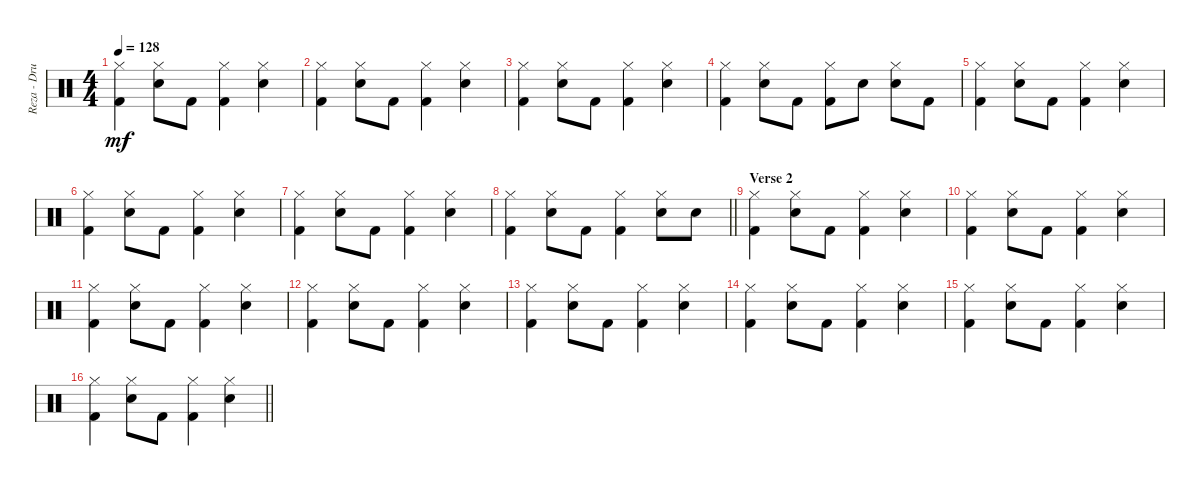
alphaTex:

\track ("Reza - Drum" "Reza - Dru") {instrument percussion}
\staff {score}
\articulation defaults
\ts (4 4)
\tempo 128
\clef neutral
\ks c
("Hi-Hat (closed)" "Kick (hit) 2").4{dy mf} ("Hi-Hat (closed)" "Electric Snare (hit)").8 "Kick (hit) 2".8 ("Hi-Hat (closed)" "Kick (hit) 2").4 ("Hi-Hat (closed)" "Electric Snare (hit)").4 |
("Hi-Hat (closed)" "Kick (hit) 2").4 ("Hi-Hat (closed)" "Electric Snare (hit)").8 "Kick (hit) 2".8 ("Hi-Hat (closed)" "Kick (hit) 2").4 ("Hi-Hat (closed)" "Electric Snare (hit)").4 |
("Hi-Hat (closed)" "Kick (hit) 2").4 ("Hi-Hat (closed)" "Electric Snare (hit)").8 "Kick (hit) 2".8 ("Hi-Hat (closed)" "Kick (hit) 2").4 ("Hi-Hat (closed)" "Electric Snare (hit)").4 |
("Hi-Hat (closed)" "Kick (hit) 2").4 ("Hi-Hat (closed)" "Electric Snare (hit)").8 "Kick (hit) 2".8 ("Hi-Hat (closed)" "Kick (hit) 2").8 "Electric Snare (hit)".8 ("Hi-Hat (closed)" "Electric Snare (hit)").8 "Kick (hit) 2".8 |
("Hi-Hat (closed)" "Kick (hit) 2").4 ("Hi-Hat (closed)" "Electric Snare (hit)").8 "Kick (hit) 2".8 ("Hi-Hat (closed)" "Kick (hit) 2").4 ("Hi-Hat (closed)" "Electric Snare (hit)").4 |
("Hi-Hat (closed)" "Kick (hit) 2").4 ("Hi-Hat (closed)" "Electric Snare (hit)").8 "Kick (hit) 2".8 ("Hi-Hat (closed)" "Kick (hit) 2").4 ("Hi-Hat (closed)" "Electric Snare (hit)").4 |
("Hi-Hat (closed)" "Kick (hit) 2").4 ("Hi-Hat (closed)" "Electric Snare (hit)").8 "Kick (hit) 2".8 ("Hi-Hat (closed)" "Kick (hit) 2").4 ("Hi-Hat (closed)" "Electric Snare (hit)").4 |
\barLineRight lightlight
("Hi-Hat (closed)" "Kick (hit) 2").4 ("Hi-Hat (closed)" "Electric Snare (hit)").8 "Kick (hit) 2".8 ("Hi-Hat (closed)" "Kick (hit) 2").4 ("Hi-Hat (closed)" "Electric Snare (hit)").8 "Electric Snare (hit)".8 |
\section ("" "Verse 2")
("Hi-Hat (closed)" "Kick (hit) 2").4 ("Hi-Hat (closed)" "Electric Snare (hit)").8 "Kick (hit) 2".8 ("Hi-Hat (closed)" "Kick (hit) 2").4 ("Hi-Hat (closed)" "Electric Snare (hit)").4 |
("Hi-Hat (closed)" "Kick (hit) 2").4 ("Hi-Hat (closed)" "Electric Snare (hit)").8 "Kick (hit) 2".8 ("Hi-Hat (closed)" "Kick (hit) 2").4 ("Hi-Hat (closed)" "Electric Snare (hit)").4 |
("Hi-Hat (closed)" "Kick (hit) 2").4 ("Hi-Hat (closed)" "Electric Snare (hit)").8 "Kick (hit) 2".8 ("Hi-Hat (closed)" "Kick (hit) 2").4 ("Hi-Hat (closed)" "Electric Snare (hit)").4 |
("Hi-Hat (closed)" "Kick (hit) 2").4 ("Hi-Hat (closed)" "Electric Snare (hit)").8 "Kick (hit) 2".8 ("Hi-Hat (closed)" "Kick (hit) 2").4 ("Hi-Hat (closed)" "Electric Snare (hit)").4 |
("Hi-Hat (closed)" "Kick (hit) 2").4 ("Hi-Hat (closed)" "Electric Snare (hit)").8 "Kick (hit) 2".8 ("Hi-Hat (closed)" "Kick (hit) 2").4 ("Hi-Hat (closed)" "Electric Snare (hit)").4 |
("Hi-Hat (closed)" "Kick (hit) 2").4 ("Hi-Hat (closed)" "Electric Snare (hit)").8 "Kick (hit) 2".8 ("Hi-Hat (closed)" "Kick (hit) 2").4 ("Hi-Hat (closed)" "Electric Snare (hit)").4 |
("Hi-Hat (closed)" "Kick (hit) 2").4 ("Hi-Hat (closed)" "Electric Snare (hit)").8 "Kick (hit) 2".8 ("Hi-Hat (closed)" "Kick (hit) 2").4 ("Hi-Hat (closed)" "Electric Snare (hit)").4 |
\barLineRight lightlight
("Hi-Hat (closed)" "Kick (hit) 2").4 ("Hi-Hat (closed)" "Electric Snare (hit)").8 "Kick (hit) 2".8 ("Hi-Hat (closed)" "Kick (hit) 2").4 ("Hi-Hat (closed)" "Electric Snare (hit)").4
